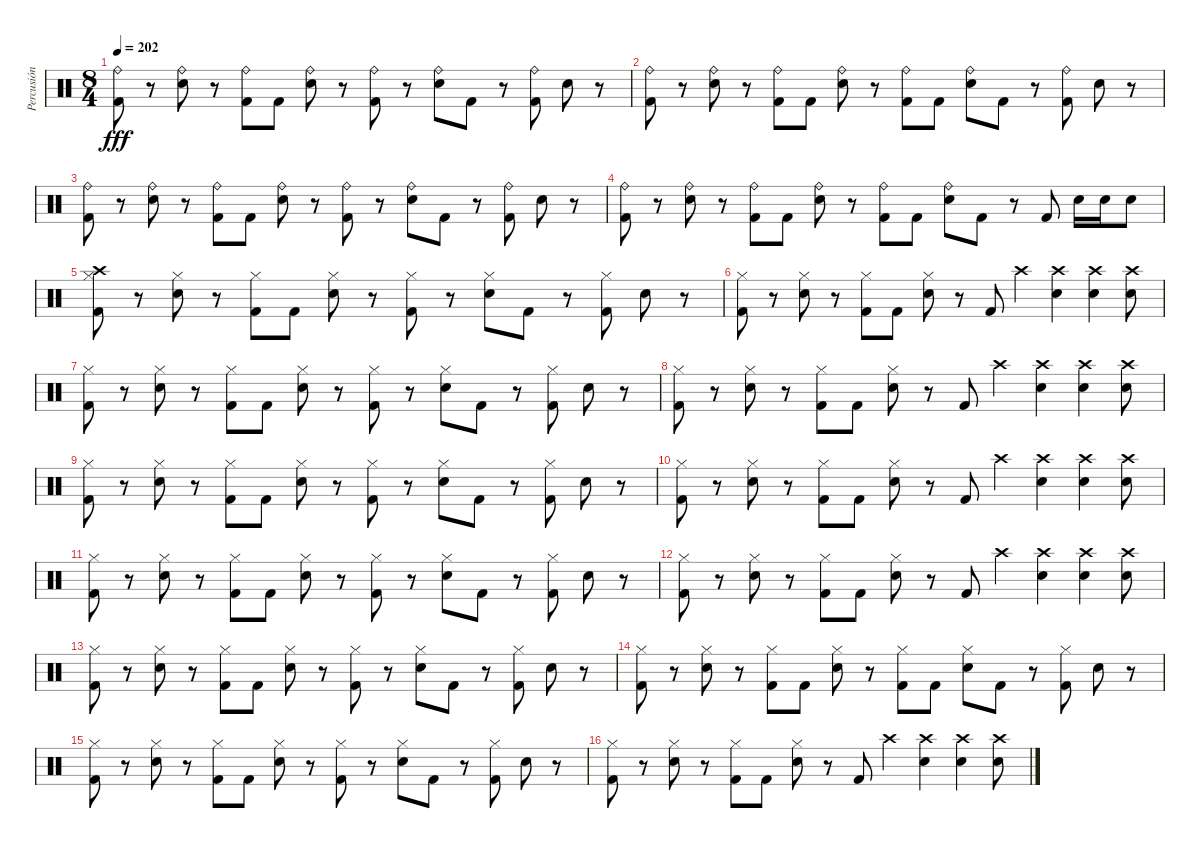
\track ("Percusión (Santi Doré)" "Percusión ") {instrument percussion}
\staff {score}
\articulation defaults
\ts (8 4)
\tempo 202
\clef neutral
\ks c
("Ride (bell)" "Kick (hit) 2").8{dy fff} r.8 ("Ride (bell)" "Electric Snare (hit)").8 r.8 ("Ride (bell)" "Kick (hit) 2").8 "Kick (hit) 2".8 ("Ride (bell)" "Electric Snare (hit)").8 r.8 ("Ride (bell)" "Kick (hit) 2").8 r.8 ("Ride (bell)" "Electric Snare (hit)").8 "Kick (hit) 2".8 r.8 ("Ride (bell)" "Kick (hit) 2").8 "Electric Snare (hit)".8 r.8 |
("Ride (bell)" "Kick (hit) 2").8 r.8 ("Ride (bell)" "Electric Snare (hit)").8 r.8 ("Ride (bell)" "Kick (hit) 2").8 "Kick (hit) 2".8 ("Ride (bell)" "Electric Snare (hit)").8 r.8 ("Ride (bell)" "Kick (hit) 2").8 "Kick (hit) 2".8 ("Ride (bell)" "Electric Snare (hit)").8 "Kick (hit) 2".8 r.8 ("Ride (bell)" "Kick (hit) 2").8 "Electric Snare (hit)".8 r.8 |
("Ride (bell)" "Kick (hit) 2").8 r.8 ("Ride (bell)" "Electric Snare (hit)").8 r.8 ("Ride (bell)" "Kick (hit) 2").8 "Kick (hit) 2".8 ("Ride (bell)" "Electric Snare (hit)").8 r.8 ("Ride (bell)" "Kick (hit) 2").8 r.8 ("Ride (bell)" "Electric Snare (hit)").8 "Kick (hit) 2".8 r.8 ("Ride (bell)" "Kick (hit) 2").8 "Electric Snare (hit)".8 r.8 |
("Ride (bell)" "Kick (hit) 2").8 r.8 ("Ride (bell)" "Electric Snare (hit)").8 r.8 ("Ride (bell)" "Kick (hit) 2").8 "Kick (hit) 2".8 ("Ride (bell)" "Electric Snare (hit)").8 r.8 ("Ride (bell)" "Kick (hit) 2").8 "Kick (hit) 2".8 ("Ride (bell)" "Electric Snare (hit)").8 "Kick (hit) 2".8 r.8 "Kick (hit) 2".8 "Electric Snare (hit)".16 "Electric Snare (hit)".16 "Electric Snare (hit)".8 |
("Crash high (hit)" "Hi-Hat (closed)" "Kick (hit) 2").8 r.8 ("Hi-Hat (closed)" "Electric Snare (hit)").8 r.8 ("Hi-Hat (closed)" "Kick (hit) 2").8 "Kick (hit) 2".8 ("Hi-Hat (closed)" "Electric Snare (hit)").8 r.8 ("Hi-Hat (closed)" "Kick (hit) 2").8 r.8 ("Hi-Hat (closed)" "Electric Snare (hit)").8 "Kick (hit) 2".8 r.8 ("Hi-Hat (closed)" "Kick (hit) 2").8 "Electric Snare (hit)".8 r.8 |
("Hi-Hat (closed)" "Kick (hit) 2").8 r.8 ("Hi-Hat (closed)" "Electric Snare (hit)").8 r.8 ("Hi-Hat (closed)" "Kick (hit) 2").8 "Kick (hit) 2".8 ("Hi-Hat (closed)" "Electric Snare (hit)").8 r.8 "Kick (hit) 2".8 "Crash high (hit)".4 ("Crash high (hit)" "Electric Snare (hit)").4 ("Crash high (hit)" "Electric Snare (hit)").4 ("Crash high (hit)" "Electric Snare (hit)").8 |
("Hi-Hat (closed)" "Kick (hit) 2").8 r.8 ("Hi-Hat (closed)" "Electric Snare (hit)").8 r.8 ("Hi-Hat (closed)" "Kick (hit) 2").8 "Kick (hit) 2".8 ("Hi-Hat (closed)" "Electric Snare (hit)").8 r.8 ("Hi-Hat (closed)" "Kick (hit) 2").8 r.8 ("Hi-Hat (closed)" "Electric Snare (hit)").8 "Kick (hit) 2".8 r.8 ("Hi-Hat (closed)" "Kick (hit) 2").8 "Electric Snare (hit)".8 r.8 |
("Hi-Hat (closed)" "Kick (hit) 2").8 r.8 ("Hi-Hat (closed)" "Electric Snare (hit)").8 r.8 ("Hi-Hat (closed)" "Kick (hit) 2").8 "Kick (hit) 2".8 ("Hi-Hat (closed)" "Electric Snare (hit)").8 r.8 "Kick (hit) 2".8 "Crash high (hit)".4 ("Crash high (hit)" "Electric Snare (hit)").4 ("Crash high (hit)" "Electric Snare (hit)").4 ("Crash high (hit)" "Electric Snare (hit)").8 |
("Hi-Hat (closed)" "Kick (hit) 2").8 r.8 ("Hi-Hat (closed)" "Electric Snare (hit)").8 r.8 ("Hi-Hat (closed)" "Kick (hit) 2").8 "Kick (hit) 2".8 ("Hi-Hat (closed)" "Electric Snare (hit)").8 r.8 ("Hi-Hat (closed)" "Kick (hit) 2").8 r.8 ("Hi-Hat (closed)" "Electric Snare (hit)").8 "Kick (hit) 2".8 r.8 ("Hi-Hat (closed)" "Kick (hit) 2").8 "Electric Snare (hit)".8 r.8 |
("Hi-Hat (closed)" "Kick (hit) 2").8 r.8 ("Hi-Hat (closed)" "Electric Snare (hit)").8 r.8 ("Hi-Hat (closed)" "Kick (hit) 2").8 "Kick (hit) 2".8 ("Hi-Hat (closed)" "Electric Snare (hit)").8 r.8 "Kick (hit) 2".8 "Crash high (hit)".4 ("Crash high (hit)" "Electric Snare (hit)").4 ("Crash high (hit)" "Electric Snare (hit)").4 ("Crash high (hit)" "Electric Snare (hit)").8 |
("Hi-Hat (closed)" "Kick (hit) 2").8 r.8 ("Hi-Hat (closed)" "Electric Snare (hit)").8 r.8 ("Hi-Hat (closed)" "Kick (hit) 2").8 "Kick (hit) 2".8 ("Hi-Hat (closed)" "Electric Snare (hit)").8 r.8 ("Hi-Hat (closed)" "Kick (hit) 2").8 r.8 ("Hi-Hat (closed)" "Electric Snare (hit)").8 "Kick (hit) 2".8 r.8 ("Hi-Hat (closed)" "Kick (hit) 2").8 "Electric Snare (hit)".8 r.8 |
("Hi-Hat (closed)" "Kick (hit) 2").8 r.8 ("Hi-Hat (closed)" "Electric Snare (hit)").8 r.8 ("Hi-Hat (closed)" "Kick (hit) 2").8 "Kick (hit) 2".8 ("Hi-Hat (closed)" "Electric Snare (hit)").8 r.8 "Kick (hit) 2".8 "Crash high (hit)".4 ("Crash high (hit)" "Electric Snare (hit)").4 ("Crash high (hit)" "Electric Snare (hit)").4 ("Crash high (hit)" "Electric Snare (hit)").8 |
("Hi-Hat (closed)" "Kick (hit) 2").8 r.8 ("Hi-Hat (closed)" "Electric Snare (hit)").8 r.8 ("Hi-Hat (closed)" "Kick (hit) 2").8 "Kick (hit) 2".8 ("Hi-Hat (closed)" "Electric Snare (hit)").8 r.8 ("Hi-Hat (closed)" "Kick (hit) 2").8 r.8 ("Hi-Hat (closed)" "Electric Snare (hit)").8 "Kick (hit) 2".8 r.8 ("Hi-Hat (closed)" "Kick (hit) 2").8 "Electric Snare (hit)".8 r.8 |
("Hi-Hat (closed)" "Kick (hit) 2").8 r.8 ("Hi-Hat (closed)" "Electric Snare (hit)").8 r.8 ("Hi-Hat (closed)" "Kick (hit) 2").8 "Kick (hit) 2".8 ("Hi-Hat (closed)" "Electric Snare (hit)").8 r.8 ("Hi-Hat (closed)" "Kick (hit) 2").8 "Kick (hit) 2".8 ("Hi-Hat (closed)" "Electric Snare (hit)").8 "Kick (hit) 2".8 r.8 ("Hi-Hat (closed)" "Kick (hit) 2").8 "Electric Snare (hit)".8 r.8 |
("Hi-Hat (closed)" "Kick (hit) 2").8 r.8 ("Hi-Hat (closed)" "Electric Snare (hit)").8 r.8 ("Hi-Hat (closed)" "Kick (hit) 2").8 "Kick (hit) 2".8 ("Hi-Hat (closed)" "Electric Snare (hit)").8 r.8 ("Hi-Hat (closed)" "Kick (hit) 2").8 r.8 ("Hi-Hat (closed)" "Electric Snare (hit)").8 "Kick (hit) 2".8 r.8 ("Hi-Hat (closed)" "Kick (hit) 2").8 "Electric Snare (hit)".8 r.8 |
("Hi-Hat (closed)" "Kick (hit) 2").8 r.8 ("Hi-Hat (closed)" "Electric Snare (hit)").8 r.8 ("Hi-Hat (closed)" "Kick (hit) 2").8 "Kick (hit) 2".8 ("Hi-Hat (closed)" "Electric Snare (hit)").8 r.8 "Kick (hit) 2".8 "Crash high (hit)".4 ("Crash high (hit)" "Electric Snare (hit)").4 ("Crash high (hit)" "Electric Snare (hit)").4 ("Crash high (hit)" "Electric Snare (hit)").8
